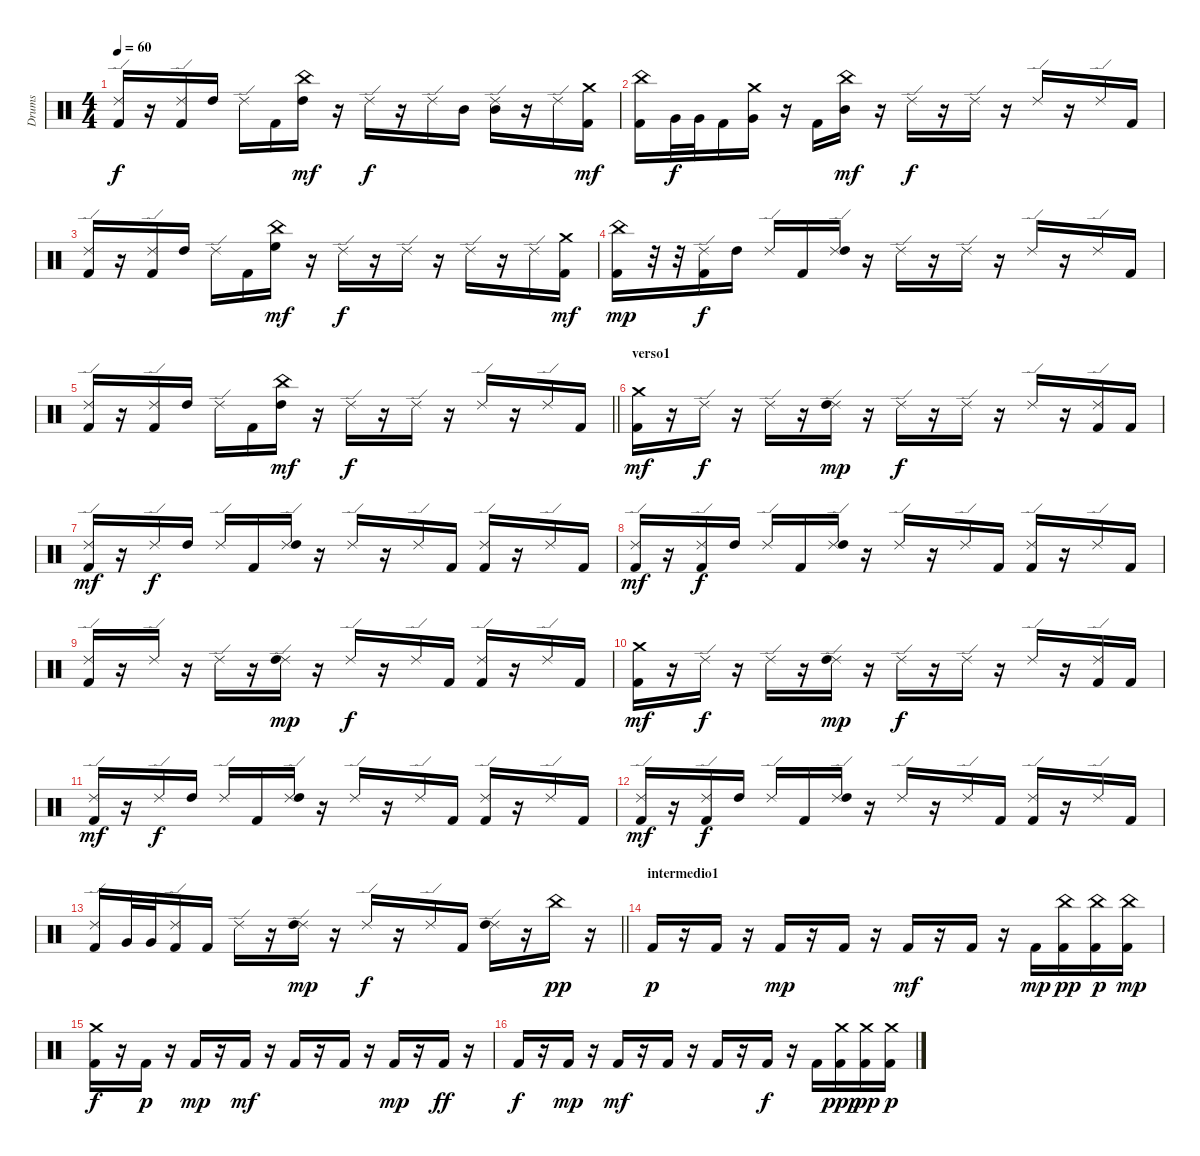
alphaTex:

\track ("Drums" "Drums") {instrument percussion}
\staff {score}
\articulation defaults
\ts (4 4)
\tempo 60
\clef neutral
\ks c
("Ride (edge) 2" "Kick (hit) 2").16{dy f} r.16 ("Ride (edge) 2" "Kick (hit) 2").16 "High Tom (hit)".16 "Ride (edge) 2".16 "Kick (hit) 2".16 ("China (hit)" "High Tom (hit)").16{dy mf} r.16 "Ride (edge) 2".16{dy f} r.16 "Ride (edge) 2".16 "Mid Tom (hit)".16 ("Ride (edge) 2" "Mid Tom (hit)").16 r.16 "Ride (edge) 2".16 ("Crash medium (hit)" "Kick (hit) 2").16{dy mf} |
("China (hit)" "Kick (hit) 2").16 "Very Low Tom (hit)".32{dy f} "Very Low Tom (hit)".32 "Kick (hit) 2".16 ("Crash medium (hit)" "Very Low Tom (hit)").16 r.16 "Kick (hit) 2".16 ("China (hit)" "Mid Tom (hit)").16{dy mf} r.16 "Ride (edge) 2".16{dy f} r.16 "Ride (edge) 2".16 r.16 "Ride (edge) 2".16 r.16 "Ride (edge) 2".16 "Kick (hit) 2".16 |
("Ride (edge) 2" "Kick (hit) 2").16 r.16 ("Ride (edge) 2" "Kick (hit) 2").16 "High Tom (hit)".16 "Ride (edge) 2".16 "Kick (hit) 2".16 ("China (hit)" "High Floor Tom (hit)").16{dy mf} r.16 "Ride (edge) 2".16{dy f} r.16 "Ride (edge) 2".16 r.16 "Ride (edge) 2".16 r.16 "Ride (edge) 2".16 ("Crash medium (hit)" "Kick (hit) 2").16{dy mf} |
("China (hit)" "Kick (hit) 2").16{dy mp} r.32 r.32 ("Ride (edge) 2" "Kick (hit) 2").16{dy f} "High Tom (hit)".16 "Ride (edge) 2".16 "Kick (hit) 2".16 ("Ride (edge) 2" "High Tom (hit)").16 r.16 "Ride (edge) 2".16 r.16 "Ride (edge) 2".16 r.16 "Ride (edge) 2".16 r.16 "Ride (edge) 2".16 "Kick (hit) 2".16 |
\barLineRight lightlight
("Ride (edge) 2" "Kick (hit) 2").16 r.16 ("Ride (edge) 2" "Kick (hit) 2").16 "High Tom (hit)".16 "Ride (edge) 2".16 "Kick (hit) 2".16 ("China (hit)" "High Tom (hit)").16{dy mf} r.16 "Ride (edge) 2".16{dy f} r.16 "Ride (edge) 2".16 r.16 "Ride (edge) 2".16 r.16 "Ride (edge) 2".16 "Kick (hit) 2".16 |
\section ("" "verso1")
("Crash medium (hit)" "Kick (hit) 2").16{dy mf} r.16 "Ride (edge) 2".16{dy f} r.16 "Ride (edge) 2".16 r.16 ("Ride (edge) 2" "High Tom (hit)").16{dy mp} r.16 "Ride (edge) 2".16{dy f} r.16 "Ride (edge) 2".16 r.16 "Ride (edge) 2".16 r.16 ("Ride (edge) 2" "Kick (hit) 2").16 "Kick (hit) 2".16 |
("Ride (edge) 2" "Kick (hit) 2").16{dy mf} r.16 "Ride (edge) 2".16{dy f} "High Tom (hit)".16 "Ride (edge) 2".16 "Kick (hit) 2".16 ("Ride (edge) 2" "High Tom (hit)").16 r.16 "Ride (edge) 2".16 r.16 "Ride (edge) 2".16 "Kick (hit) 2".16 ("Ride (edge) 2" "Kick (hit) 2").16 r.16 "Ride (edge) 2".16 "Kick (hit) 2".16 |
("Ride (edge) 2" "Kick (hit) 2").16{dy mf} r.16 ("Ride (edge) 2" "Kick (hit) 2").16{dy f} "High Tom (hit)".16 "Ride (edge) 2".16 "Kick (hit) 2".16 ("Ride (edge) 2" "High Tom (hit)").16 r.16 "Ride (edge) 2".16 r.16 "Ride (edge) 2".16 "Kick (hit) 2".16 ("Ride (edge) 2" "Kick (hit) 2").16 r.16 "Ride (edge) 2".16 "Kick (hit) 2".16 |
("Ride (edge) 2" "Kick (hit) 2").16 r.16 "Ride (edge) 2".16 r.16 "Ride (edge) 2".16 r.16 ("Ride (edge) 2" "High Tom (hit)").16{dy mp} r.16 "Ride (edge) 2".16{dy f} r.16 "Ride (edge) 2".16 "Kick (hit) 2".16 ("Ride (edge) 2" "Kick (hit) 2").16 r.16 "Ride (edge) 2".16 "Kick (hit) 2".16 |
("Crash medium (hit)" "Kick (hit) 2").16{dy mf} r.16 "Ride (edge) 2".16{dy f} r.16 "Ride (edge) 2".16 r.16 ("Ride (edge) 2" "High Tom (hit)").16{dy mp} r.16 "Ride (edge) 2".16{dy f} r.16 "Ride (edge) 2".16 r.16 "Ride (edge) 2".16 r.16 ("Ride (edge) 2" "Kick (hit) 2").16 "Kick (hit) 2".16 |
("Ride (edge) 2" "Kick (hit) 2").16{dy mf} r.16 "Ride (edge) 2".16{dy f} "High Tom (hit)".16 "Ride (edge) 2".16 "Kick (hit) 2".16 ("Ride (edge) 2" "High Tom (hit)").16 r.16 "Ride (edge) 2".16 r.16 "Ride (edge) 2".16 "Kick (hit) 2".16 ("Ride (edge) 2" "Kick (hit) 2").16 r.16 "Ride (edge) 2".16 "Kick (hit) 2".16 |
("Ride (edge) 2" "Kick (hit) 2").16{dy mf} r.16 ("Ride (edge) 2" "Kick (hit) 2").16{dy f} "High Tom (hit)".16 "Ride (edge) 2".16 "Kick (hit) 2".16 ("Ride (edge) 2" "High Tom (hit)").16 r.16 "Ride (edge) 2".16 r.16 "Ride (edge) 2".16 "Kick (hit) 2".16 ("Ride (edge) 2" "Kick (hit) 2").16 r.16 "Ride (edge) 2".16 "Kick (hit) 2".16 |
\barLineRight lightlight
("Ride (edge) 2" "Kick (hit) 2").16 "Very Low Tom (hit)".32 "Very Low Tom (hit)".32 ("Ride (edge) 2" "Kick (hit) 2").16 "Kick (hit) 2".16 "Ride (edge) 2".16 r.16 ("Ride (edge) 2" "High Tom (hit)").16{dy mp} r.16 "Ride (edge) 2".16{dy f} r.16 "Ride (edge) 2".16 "Kick (hit) 2".16 ("Ride (edge) 2" "High Tom (hit)").16 r.16 "China (hit)".16{dy pp} r.16 |
\section ("" "intermedio1")
"Kick (hit) 2".16{dy p} r.16 "Kick (hit) 2".16 r.16 "Kick (hit) 2".16{dy mp} r.16 "Kick (hit) 2".16 r.16 "Kick (hit) 2".16{dy mf} r.16 "Kick (hit) 2".16 r.16 "Kick (hit) 2".16{dy mp} ("China (hit)" "Kick (hit) 2").16{dy pp} ("China (hit)" "Kick (hit) 2").16{dy p} ("China (hit)" "Kick (hit) 2").16{dy mp} |
("Crash medium (hit)" "Kick (hit) 2").16{dy f} r.16 "Kick (hit) 2".16{dy p} r.16 "Kick (hit) 2".16{dy mp} r.16 "Kick (hit) 2".16{dy mf} r.16 "Kick (hit) 2".16 r.16 "Kick (hit) 2".16 r.16 "Kick (hit) 2".16{dy mp} r.16 "Kick (hit) 2".16{dy ff} r.16 |
"Kick (hit) 2".16{dy f} r.16 "Kick (hit) 2".16{dy mp} r.16 "Kick (hit) 2".16{dy mf} r.16 "Kick (hit) 2".16 r.16 "Kick (hit) 2".16 r.16 "Kick (hit) 2".16{dy f} r.16 "Kick (hit) 2".16 ("Crash medium (hit)" "Kick (hit) 2").16{dy ppp} ("Crash medium (hit)" "Kick (hit) 2").16{dy pp} ("Crash medium (hit)" "Kick (hit) 2").16{dy p}
